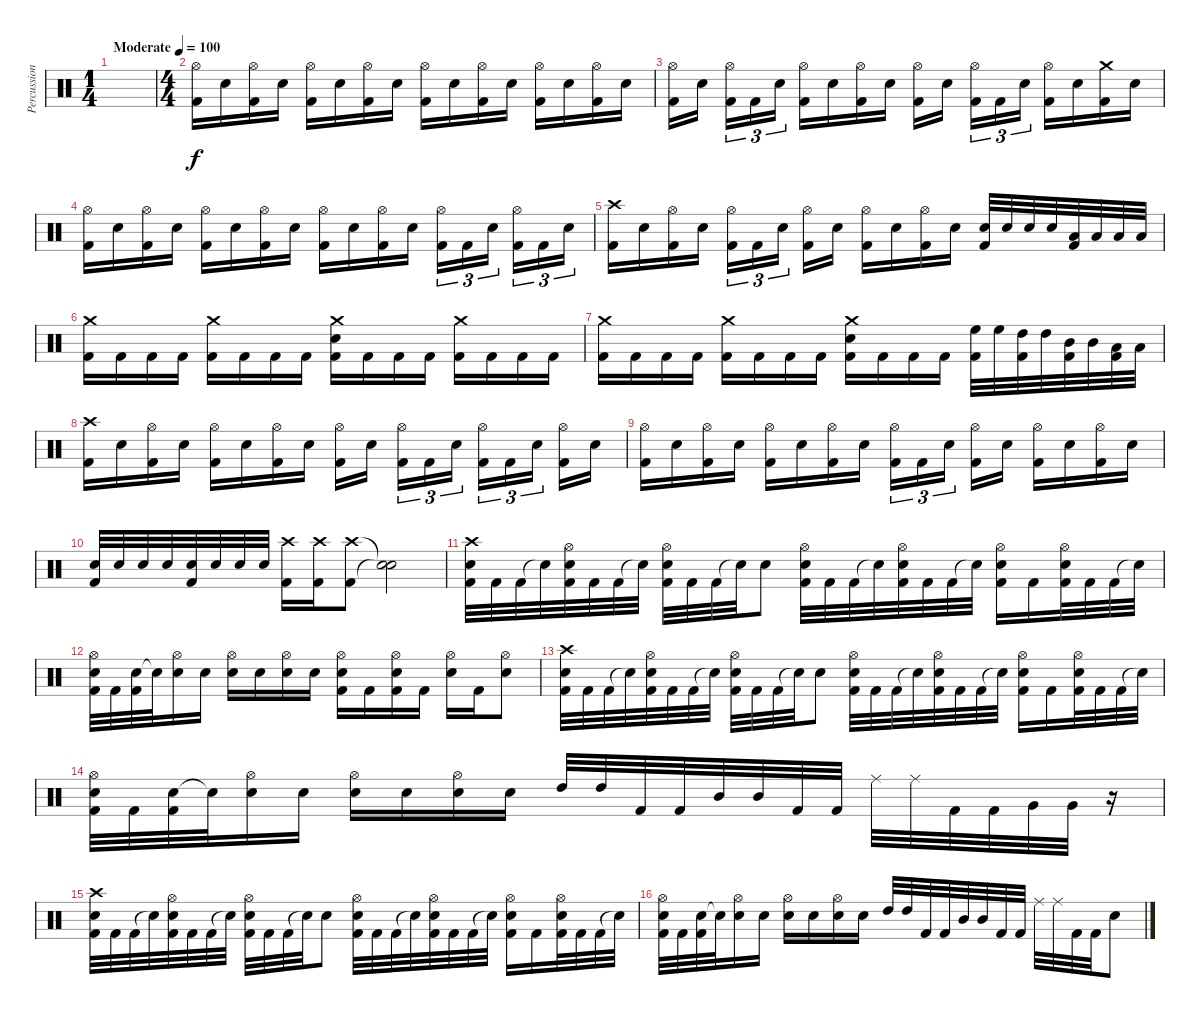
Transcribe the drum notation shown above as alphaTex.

\track ("Percussion" "Percussion") {instrument percussion}
\staff {score}
\articulation defaults
\ts (1 4)
\tempo (100 "Moderate")
\clef neutral
\ks c
|
\ts (4 4)
("Hi-Hat (open)" "Kick (hit) 2").16 "Electric Snare (hit)".16 ("Hi-Hat (open)" "Kick (hit) 2").16 "Electric Snare (hit)".16 ("Hi-Hat (open)" "Kick (hit) 2").16 "Electric Snare (hit)".16 ("Hi-Hat (open)" "Kick (hit) 2").16 "Electric Snare (hit)".16 ("Hi-Hat (open)" "Kick (hit) 2").16 "Electric Snare (hit)".16 ("Hi-Hat (open)" "Kick (hit) 2").16 "Electric Snare (hit)".16 ("Hi-Hat (open)" "Kick (hit) 2").16 "Electric Snare (hit)".16 ("Hi-Hat (open)" "Kick (hit) 2").16 "Electric Snare (hit)".16 |
("Hi-Hat (open)" "Kick (hit) 2").16 "Electric Snare (hit)".16{beam splitsecondary} ("Hi-Hat (open)" "Kick (hit) 2").16{tu (3 2)} "Kick (hit) 2".16{tu (3 2)} "Electric Snare (hit)".16{tu (3 2)} ("Hi-Hat (open)" "Kick (hit) 2").16 "Electric Snare (hit)".16 ("Hi-Hat (open)" "Kick (hit) 2").16 "Electric Snare (hit)".16 ("Hi-Hat (open)" "Kick (hit) 2").16 "Electric Snare (hit)".16{beam splitsecondary} ("Hi-Hat (open)" "Kick (hit) 2").16{tu (3 2)} "Kick (hit) 2".16{tu (3 2)} "Electric Snare (hit)".16{tu (3 2)} ("Hi-Hat (open)" "Kick (hit) 2").16 "Electric Snare (hit)".16 ("Crash medium (hit)" "Kick (hit) 2").16 "Electric Snare (hit)".16 |
("Hi-Hat (open)" "Kick (hit) 2").16 "Electric Snare (hit)".16 ("Hi-Hat (open)" "Kick (hit) 2").16 "Electric Snare (hit)".16 ("Hi-Hat (open)" "Kick (hit) 2").16 "Electric Snare (hit)".16 ("Hi-Hat (open)" "Kick (hit) 2").16 "Electric Snare (hit)".16 ("Hi-Hat (open)" "Kick (hit) 2").16 "Electric Snare (hit)".16 ("Hi-Hat (open)" "Kick (hit) 2").16 "Electric Snare (hit)".16 ("Hi-Hat (open)" "Kick (hit) 2").16{tu (3 2)} "Kick (hit) 2".16{tu (3 2)} "Electric Snare (hit)".16{tu (3 2) beam splitsecondary} ("Hi-Hat (open)" "Kick (hit) 2").16{tu (3 2)} "Kick (hit) 2".16{tu (3 2)} "Electric Snare (hit)".16{tu (3 2)} |
("Crash high (hit)" "Kick (hit) 2").16 "Electric Snare (hit)".16 ("Hi-Hat (open)" "Kick (hit) 2").16 "Electric Snare (hit)".16 ("Hi-Hat (open)" "Kick (hit) 2").16{tu (3 2)} "Kick (hit) 2".16{tu (3 2)} "Electric Snare (hit)".16{tu (3 2) beam splitsecondary} ("Hi-Hat (open)" "Kick (hit) 2").16 "Electric Snare (hit)".16 ("Hi-Hat (open)" "Kick (hit) 2").16 "Electric Snare (hit)".16 ("Hi-Hat (open)" "Kick (hit) 2").16 "Electric Snare (hit)".16 ("Electric Snare (hit)" "Kick (hit) 2").32 "Electric Snare (hit)".32 "Electric Snare (hit)".32 "Electric Snare (hit)".32 ("Low Tom (hit)" "Kick (hit) 2").32 "Low Tom (hit)".32 "Low Tom (hit)".32 "Low Tom (hit)".32 |
("Crash medium (hit)" "Kick (hit) 2").16 "Kick (hit) 2".16 "Kick (hit) 2".16 "Kick (hit) 2".16 ("Crash medium (hit)" "Kick (hit) 2").16 "Kick (hit) 2".16 "Kick (hit) 2".16 "Kick (hit) 2".16 ("Crash medium (hit)" "Electric Snare (hit)" "Kick (hit) 2").16 "Kick (hit) 2".16 "Kick (hit) 2".16 "Kick (hit) 2".16 ("Crash medium (hit)" "Kick (hit) 2").16 "Kick (hit) 2".16 "Kick (hit) 2".16 "Kick (hit) 2".16 |
("Crash medium (hit)" "Kick (hit) 2").16 "Kick (hit) 2".16 "Kick (hit) 2".16 "Kick (hit) 2".16 ("Crash medium (hit)" "Kick (hit) 2").16 "Kick (hit) 2".16 "Kick (hit) 2".16 "Kick (hit) 2".16 ("Crash medium (hit)" "Electric Snare (hit)" "Kick (hit) 2").16 "Kick (hit) 2".16 "Kick (hit) 2".16 "Kick (hit) 2".16 ("High Floor Tom (hit)" "Kick (hit) 2").32 "High Floor Tom (hit)".32 ("High Tom (hit)" "Kick (hit) 2").32 "High Tom (hit)".32 ("Mid Tom (hit)" "Kick (hit) 2").32 "Mid Tom (hit)".32 ("Low Tom (hit)" "Kick (hit) 2").32 "Low Tom (hit)".32 |
("Crash high (hit)" "Kick (hit) 2").16 "Electric Snare (hit)".16 ("Hi-Hat (open)" "Kick (hit) 2").16 "Electric Snare (hit)".16 ("Hi-Hat (open)" "Kick (hit) 2").16 "Electric Snare (hit)".16 ("Hi-Hat (open)" "Kick (hit) 2").16 "Electric Snare (hit)".16 ("Hi-Hat (open)" "Kick (hit) 2").16 "Electric Snare (hit)".16{beam splitsecondary} ("Hi-Hat (open)" "Kick (hit) 2").16{tu (3 2)} "Kick (hit) 2".16{tu (3 2)} "Electric Snare (hit)".16{tu (3 2)} ("Hi-Hat (open)" "Kick (hit) 2").16{tu (3 2)} "Kick (hit) 2".16{tu (3 2)} "Electric Snare (hit)".16{tu (3 2) beam splitsecondary} ("Hi-Hat (open)" "Kick (hit) 2").16 "Electric Snare (hit)".16 |
("Hi-Hat (open)" "Kick (hit) 2").16 "Electric Snare (hit)".16 ("Hi-Hat (open)" "Kick (hit) 2").16 "Electric Snare (hit)".16 ("Hi-Hat (open)" "Kick (hit) 2").16 "Electric Snare (hit)".16 ("Hi-Hat (open)" "Kick (hit) 2").16 "Electric Snare (hit)".16 ("Hi-Hat (open)" "Kick (hit) 2").16{tu (3 2)} "Kick (hit) 2".16{tu (3 2)} "Electric Snare (hit)".16{tu (3 2) beam splitsecondary} ("Hi-Hat (open)" "Kick (hit) 2").16 "Electric Snare (hit)".16 ("Hi-Hat (open)" "Kick (hit) 2").16 "Electric Snare (hit)".16 ("Hi-Hat (open)" "Kick (hit) 2").16 "Electric Snare (hit)".16 |
("Electric Snare (hit)" "Kick (hit) 2").32 "Electric Snare (hit)".32 "Electric Snare (hit)".32 "Electric Snare (hit)".32 ("Electric Snare (hit)" "Kick (hit) 2").32 "Electric Snare (hit)".32 "Electric Snare (hit)".32 "Electric Snare (hit)".32 ("Crash high (hit)" "Kick (hit) 2").16 ("Crash high (hit)" "Kick (hit) 2").16 ("Crash high (hit)" "Kick (hit) 2").8 ("Snare (hit)"{t} "Snare (hit)"{t}).2 |
("Crash high (hit)" "Electric Snare (hit)" "Kick (hit) 2").32 "Kick (hit) 2".32 "Kick (hit) 2".32 "Snare (hit)"{t}.32 ("Hi-Hat (open)" "Electric Snare (hit)" "Kick (hit) 2").32 "Kick (hit) 2".32 "Kick (hit) 2".32 "Snare (hit)"{t}.32 ("Hi-Hat (open)" "Electric Snare (hit)" "Kick (hit) 2").32 "Kick (hit) 2".32 "Kick (hit) 2".32 "Snare (hit)"{t}.32 "Electric Snare (hit)".8 ("Hi-Hat (open)" "Electric Snare (hit)" "Kick (hit) 2").32 "Kick (hit) 2".32 "Kick (hit) 2".32 "Snare (hit)"{t}.32 ("Hi-Hat (open)" "Electric Snare (hit)" "Kick (hit) 2").32 "Kick (hit) 2".32 "Kick (hit) 2".32 "Snare (hit)"{t}.32 ("Hi-Hat (open)" "Electric Snare (hit)" "Kick (hit) 2").16 "Kick (hit) 2".16 ("Hi-Hat (open)" "Electric Snare (hit)" "Kick (hit) 2").32 "Kick (hit) 2".32 "Kick (hit) 2".32 "Snare (hit)"{t}.32 |
("Hi-Hat (open)" "Electric Snare (hit)" "Kick (hit) 2").32 "Kick (hit) 2".32 ("Electric Snare (hit)" "Kick (hit) 2").32 "Snare (hit)"{t}.32 ("Hi-Hat (open)" "Electric Snare (hit)").16 "Electric Snare (hit)".16 ("Hi-Hat (open)" "Electric Snare (hit)").16 "Electric Snare (hit)".16 ("Hi-Hat (open)" "Electric Snare (hit)").16 "Electric Snare (hit)".16 ("Hi-Hat (open)" "Electric Snare (hit)" "Kick (hit) 2").16 "Kick (hit) 2".16 ("Hi-Hat (open)" "Electric Snare (hit)" "Kick (hit) 2").16 "Kick (hit) 2".16 ("Hi-Hat (open)" "Electric Snare (hit)").16 "Kick (hit) 2".16 ("Hi-Hat (open)" "Electric Snare (hit)").8 |
("Crash high (hit)" "Electric Snare (hit)" "Kick (hit) 2").32 "Kick (hit) 2".32 "Kick (hit) 2".32 "Snare (hit)"{t}.32 ("Hi-Hat (open)" "Electric Snare (hit)" "Kick (hit) 2").32 "Kick (hit) 2".32 "Kick (hit) 2".32 "Snare (hit)"{t}.32 ("Hi-Hat (open)" "Electric Snare (hit)" "Kick (hit) 2").32 "Kick (hit) 2".32 "Kick (hit) 2".32 "Snare (hit)"{t}.32 "Electric Snare (hit)".8 ("Hi-Hat (open)" "Electric Snare (hit)" "Kick (hit) 2").32 "Kick (hit) 2".32 "Kick (hit) 2".32 "Snare (hit)"{t}.32 ("Hi-Hat (open)" "Electric Snare (hit)" "Kick (hit) 2").32 "Kick (hit) 2".32 "Kick (hit) 2".32 "Snare (hit)"{t}.32 ("Hi-Hat (open)" "Electric Snare (hit)" "Kick (hit) 2").16 "Kick (hit) 2".16 ("Hi-Hat (open)" "Electric Snare (hit)" "Kick (hit) 2").32 "Kick (hit) 2".32 "Kick (hit) 2".32 "Snare (hit)"{t}.32 |
("Hi-Hat (open)" "Electric Snare (hit)" "Kick (hit) 2").32 "Kick (hit) 2".32 ("Electric Snare (hit)" "Kick (hit) 2").32 "Snare (hit)"{t}.32 ("Hi-Hat (open)" "Electric Snare (hit)").16 "Electric Snare (hit)".16 ("Hi-Hat (open)" "Electric Snare (hit)").16 "Electric Snare (hit)".16 ("Hi-Hat (open)" "Electric Snare (hit)").16 "Electric Snare (hit)".16 "High Tom (hit)".32 "High Tom (hit)".32 "Kick (hit) 2".32 "Kick (hit) 2".32 "Mid Tom (hit)".32 "Mid Tom (hit)".32 "Kick (hit) 2".32 "Kick (hit) 2".32 "Ride (middle)".32 "Ride (middle)".32 "Kick (hit) 2".32 "Kick (hit) 2".32 "Very Low Tom (hit)".32 "Very Low Tom (hit)".32 r.16 |
("Crash high (hit)" "Electric Snare (hit)" "Kick (hit) 2").32 "Kick (hit) 2".32 "Kick (hit) 2".32 "Snare (hit)"{t}.32 ("Hi-Hat (open)" "Electric Snare (hit)" "Kick (hit) 2").32 "Kick (hit) 2".32 "Kick (hit) 2".32 "Snare (hit)"{t}.32 ("Hi-Hat (open)" "Electric Snare (hit)" "Kick (hit) 2").32 "Kick (hit) 2".32 "Kick (hit) 2".32 "Snare (hit)"{t}.32 "Electric Snare (hit)".8 ("Hi-Hat (open)" "Electric Snare (hit)" "Kick (hit) 2").32 "Kick (hit) 2".32 "Kick (hit) 2".32 "Snare (hit)"{t}.32 ("Hi-Hat (open)" "Electric Snare (hit)" "Kick (hit) 2").32 "Kick (hit) 2".32 "Kick (hit) 2".32 "Snare (hit)"{t}.32 ("Hi-Hat (open)" "Electric Snare (hit)" "Kick (hit) 2").16 "Kick (hit) 2".16 ("Hi-Hat (open)" "Electric Snare (hit)" "Kick (hit) 2").32 "Kick (hit) 2".32 "Kick (hit) 2".32 "Snare (hit)"{t}.32 |
("Hi-Hat (open)" "Electric Snare (hit)" "Kick (hit) 2").32 "Kick (hit) 2".32 ("Electric Snare (hit)" "Kick (hit) 2").32 "Snare (hit)"{t}.32 ("Hi-Hat (open)" "Electric Snare (hit)").16 "Electric Snare (hit)".16 ("Hi-Hat (open)" "Electric Snare (hit)").16 "Electric Snare (hit)".16 ("Hi-Hat (open)" "Electric Snare (hit)").16 "Electric Snare (hit)".16 "High Tom (hit)".32 "High Tom (hit)".32 "Kick (hit) 2".32 "Kick (hit) 2".32 "Mid Tom (hit)".32 "Mid Tom (hit)".32 "Kick (hit) 2".32 "Kick (hit) 2".32 "Ride (middle)".32 "Ride (middle)".32 "Kick (hit) 2".32 "Kick (hit) 2".32 "Electric Snare (hit)".8
